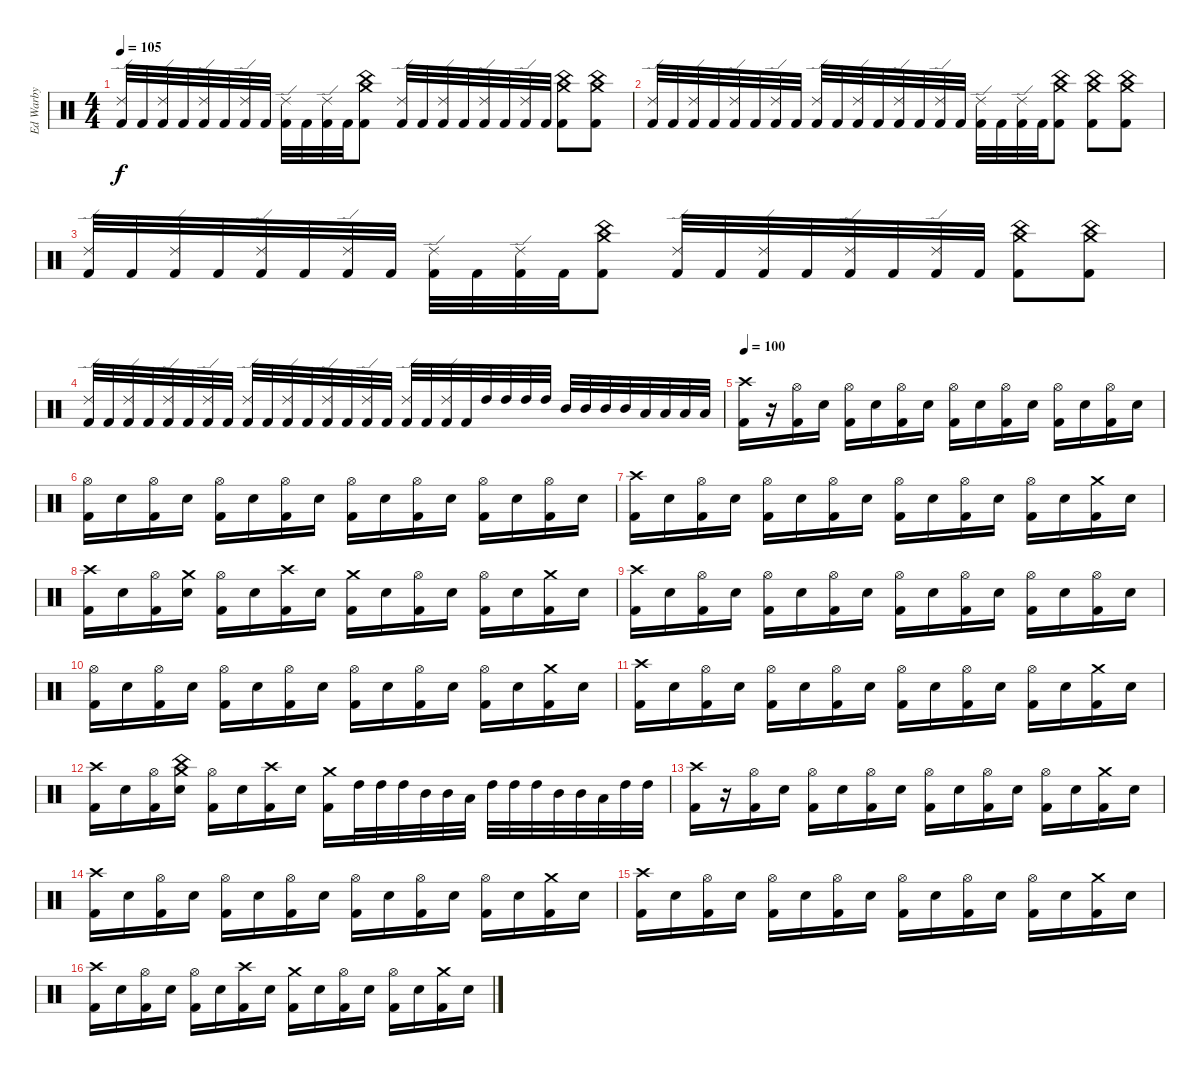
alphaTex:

\track ("Ed Warby" "Ed Warby") {instrument percussion}
\staff {score}
\articulation defaults
\ts (4 4)
\tempo 105
\clef neutral
\ks c
("Ride (edge) 2" "Kick (hit) 2").32{dy f} "Kick (hit) 2".32 ("Ride (edge) 2" "Kick (hit) 2").32 "Kick (hit) 2".32 ("Ride (edge) 2" "Kick (hit) 2").32 "Kick (hit) 2".32 ("Ride (edge) 2" "Kick (hit) 2").32 "Kick (hit) 2".32 ("Ride (edge) 2" "Kick (hit) 2").32 "Kick (hit) 2".32 ("Ride (edge) 2" "Kick (hit) 2").32 "Kick (hit) 2".32 ("China (hit)" "Crash medium (hit)" "Kick (hit) 2").8 ("Ride (edge) 2" "Kick (hit) 2").32 "Kick (hit) 2".32 ("Ride (edge) 2" "Kick (hit) 2").32 "Kick (hit) 2".32 ("Ride (edge) 2" "Kick (hit) 2").32 "Kick (hit) 2".32 ("Ride (edge) 2" "Kick (hit) 2").32 "Kick (hit) 2".32 ("China (hit)" "Crash medium (hit)" "Kick (hit) 2").8 ("China (hit)" "Crash medium (hit)" "Kick (hit) 2").8 |
("Ride (edge) 2" "Kick (hit) 2").32 "Kick (hit) 2".32 ("Ride (edge) 2" "Kick (hit) 2").32 "Kick (hit) 2".32 ("Ride (edge) 2" "Kick (hit) 2").32 "Kick (hit) 2".32 ("Ride (edge) 2" "Kick (hit) 2").32 "Kick (hit) 2".32 ("Ride (edge) 2" "Kick (hit) 2").32 "Kick (hit) 2".32 ("Ride (edge) 2" "Kick (hit) 2").32 "Kick (hit) 2".32 ("Ride (edge) 2" "Kick (hit) 2").32 "Kick (hit) 2".32 ("Ride (edge) 2" "Kick (hit) 2").32 "Kick (hit) 2".32 ("Ride (edge) 2" "Kick (hit) 2").32 "Kick (hit) 2".32 ("Ride (edge) 2" "Kick (hit) 2").32 "Kick (hit) 2".32 ("China (hit)" "Crash medium (hit)" "Kick (hit) 2").8 ("China (hit)" "Crash medium (hit)" "Kick (hit) 2").8 ("China (hit)" "Crash medium (hit)" "Kick (hit) 2").8 |
("Ride (edge) 2" "Kick (hit) 2").32 "Kick (hit) 2".32 ("Ride (edge) 2" "Kick (hit) 2").32 "Kick (hit) 2".32 ("Ride (edge) 2" "Kick (hit) 2").32 "Kick (hit) 2".32 ("Ride (edge) 2" "Kick (hit) 2").32 "Kick (hit) 2".32 ("Ride (edge) 2" "Kick (hit) 2").32 "Kick (hit) 2".32 ("Ride (edge) 2" "Kick (hit) 2").32 "Kick (hit) 2".32 ("China (hit)" "Crash medium (hit)" "Kick (hit) 2").8 ("Ride (edge) 2" "Kick (hit) 2").32 "Kick (hit) 2".32 ("Ride (edge) 2" "Kick (hit) 2").32 "Kick (hit) 2".32 ("Ride (edge) 2" "Kick (hit) 2").32 "Kick (hit) 2".32 ("Ride (edge) 2" "Kick (hit) 2").32 "Kick (hit) 2".32 ("China (hit)" "Crash medium (hit)" "Kick (hit) 2").8 ("China (hit)" "Crash medium (hit)" "Kick (hit) 2").8 |
("Ride (edge) 2" "Kick (hit) 2").32 "Kick (hit) 2".32 ("Ride (edge) 2" "Kick (hit) 2").32 "Kick (hit) 2".32 ("Ride (edge) 2" "Kick (hit) 2").32 "Kick (hit) 2".32 ("Ride (edge) 2" "Kick (hit) 2").32 "Kick (hit) 2".32 ("Ride (edge) 2" "Kick (hit) 2").32 "Kick (hit) 2".32 ("Ride (edge) 2" "Kick (hit) 2").32 "Kick (hit) 2".32 ("Ride (edge) 2" "Kick (hit) 2").32 "Kick (hit) 2".32 ("Ride (edge) 2" "Kick (hit) 2").32 "Kick (hit) 2".32 ("Ride (edge) 2" "Kick (hit) 2").32 "Kick (hit) 2".32 ("Ride (edge) 2" "Kick (hit) 2").32 "Kick (hit) 2".32 "High Tom (hit)".32 "High Tom (hit)".32 "High Tom (hit)".32 "High Tom (hit)".32 "Mid Tom (hit)".32 "Mid Tom (hit)".32 "Mid Tom (hit)".32 "Mid Tom (hit)".32 "Low Tom (hit)".32 "Low Tom (hit)".32 "Low Tom (hit)".32 "Low Tom (hit)".32 |
\tempo 100
("Crash high (hit)" "Kick (hit) 2").16 r.16 ("Hi-Hat (open)" "Kick (hit) 2").16 "Snare (hit) 2".16 ("Hi-Hat (open)" "Kick (hit) 2").16 "Snare (hit) 2".16 ("Hi-Hat (open)" "Kick (hit) 2").16 "Snare (hit) 2".16 ("Hi-Hat (open)" "Kick (hit) 2").16 "Snare (hit) 2".16 ("Hi-Hat (open)" "Kick (hit) 2").16 "Snare (hit) 2".16 ("Hi-Hat (open)" "Kick (hit) 2").16 "Snare (hit) 2".16 ("Hi-Hat (open)" "Kick (hit) 2").16 "Snare (hit) 2".16 |
("Hi-Hat (open)" "Kick (hit) 2").16 "Snare (hit) 2".16 ("Hi-Hat (open)" "Kick (hit) 2").16 "Snare (hit) 2".16 ("Hi-Hat (open)" "Kick (hit) 2").16 "Snare (hit) 2".16 ("Hi-Hat (open)" "Kick (hit) 2").16 "Snare (hit) 2".16 ("Hi-Hat (open)" "Kick (hit) 2").16 "Snare (hit) 2".16 ("Hi-Hat (open)" "Kick (hit) 2").16 "Snare (hit) 2".16 ("Hi-Hat (open)" "Kick (hit) 2").16 "Snare (hit) 2".16 ("Hi-Hat (open)" "Kick (hit) 2").16 "Snare (hit) 2".16 |
("Crash high (hit)" "Kick (hit) 2").16 "Snare (hit) 2".16 ("Hi-Hat (open)" "Kick (hit) 2").16 "Snare (hit) 2".16 ("Hi-Hat (open)" "Kick (hit) 2").16 "Snare (hit) 2".16 ("Hi-Hat (open)" "Kick (hit) 2").16 "Snare (hit) 2".16 ("Hi-Hat (open)" "Kick (hit) 2").16 "Snare (hit) 2".16 ("Hi-Hat (open)" "Kick (hit) 2").16 "Snare (hit) 2".16 ("Hi-Hat (open)" "Kick (hit) 2").16 "Snare (hit) 2".16 ("Crash medium (hit)" "Kick (hit) 2").16 "Snare (hit) 2".16 |
("Crash high (hit)" "Kick (hit) 2").16 "Snare (hit) 2".16 ("Hi-Hat (open)" "Kick (hit) 2").16 ("Crash medium (hit)" "Snare (hit) 2").16 ("Hi-Hat (open)" "Kick (hit) 2").16 "Snare (hit) 2".16 ("Crash high (hit)" "Kick (hit) 2").16 "Snare (hit) 2".16 ("Crash medium (hit)" "Kick (hit) 2").16 "Snare (hit) 2".16 ("Hi-Hat (open)" "Kick (hit) 2").16 "Snare (hit) 2".16 ("Hi-Hat (open)" "Kick (hit) 2").16 "Snare (hit) 2".16 ("Crash medium (hit)" "Kick (hit) 2").16 "Snare (hit) 2".16 |
("Crash high (hit)" "Kick (hit) 2").16 "Snare (hit) 2".16 ("Hi-Hat (open)" "Kick (hit) 2").16 "Snare (hit) 2".16 ("Hi-Hat (open)" "Kick (hit) 2").16 "Snare (hit) 2".16 ("Hi-Hat (open)" "Kick (hit) 2").16 "Snare (hit) 2".16 ("Hi-Hat (open)" "Kick (hit) 2").16 "Snare (hit) 2".16 ("Hi-Hat (open)" "Kick (hit) 2").16 "Snare (hit) 2".16 ("Hi-Hat (open)" "Kick (hit) 2").16 "Snare (hit) 2".16 ("Hi-Hat (open)" "Kick (hit) 2").16 "Snare (hit) 2".16 |
("Hi-Hat (open)" "Kick (hit) 2").16 "Snare (hit) 2".16 ("Hi-Hat (open)" "Kick (hit) 2").16 "Snare (hit) 2".16 ("Hi-Hat (open)" "Kick (hit) 2").16 "Snare (hit) 2".16 ("Hi-Hat (open)" "Kick (hit) 2").16 "Snare (hit) 2".16 ("Hi-Hat (open)" "Kick (hit) 2").16 "Snare (hit) 2".16 ("Hi-Hat (open)" "Kick (hit) 2").16 "Snare (hit) 2".16 ("Hi-Hat (open)" "Kick (hit) 2").16 "Snare (hit) 2".16 ("Crash medium (hit)" "Kick (hit) 2").16 "Snare (hit) 2".16 |
("Crash high (hit)" "Kick (hit) 2").16 "Snare (hit) 2".16 ("Hi-Hat (open)" "Kick (hit) 2").16 "Snare (hit) 2".16 ("Hi-Hat (open)" "Kick (hit) 2").16 "Snare (hit) 2".16 ("Hi-Hat (open)" "Kick (hit) 2").16 "Snare (hit) 2".16 ("Hi-Hat (open)" "Kick (hit) 2").16 "Snare (hit) 2".16 ("Hi-Hat (open)" "Kick (hit) 2").16 "Snare (hit) 2".16 ("Hi-Hat (open)" "Kick (hit) 2").16 "Snare (hit) 2".16 ("Crash medium (hit)" "Kick (hit) 2").16 "Snare (hit) 2".16 |
("Crash high (hit)" "Kick (hit) 2").16 "Snare (hit) 2".16 ("Hi-Hat (open)" "Kick (hit) 2").16 ("China (hit)" "Crash medium (hit)" "Snare (hit) 2").16 ("Hi-Hat (open)" "Kick (hit) 2").16 "Snare (hit) 2".16 ("Crash high (hit)" "Kick (hit) 2").16 "Snare (hit) 2".16 ("Crash medium (hit)" "Kick (hit) 2").16 "High Tom (hit)".32 "High Tom (hit)".32 "High Tom (hit)".32 "Mid Tom (hit)".32 "Mid Tom (hit)".32 "Low Tom (hit)".32 "High Tom (hit)".32 "High Tom (hit)".32 "High Tom (hit)".32 "Mid Tom (hit)".32 "Mid Tom (hit)".32 "Low Tom (hit)".32 "High Tom (hit)".32 "High Tom (hit)".32 |
("Crash high (hit)" "Kick (hit) 2").16 r.16 ("Hi-Hat (open)" "Kick (hit) 2").16 "Snare (hit) 2".16 ("Hi-Hat (open)" "Kick (hit) 2").16 "Snare (hit) 2".16 ("Hi-Hat (open)" "Kick (hit) 2").16 "Snare (hit) 2".16 ("Hi-Hat (open)" "Kick (hit) 2").16 "Snare (hit) 2".16 ("Hi-Hat (open)" "Kick (hit) 2").16 "Snare (hit) 2".16 ("Hi-Hat (open)" "Kick (hit) 2").16 "Snare (hit) 2".16 ("Crash medium (hit)" "Kick (hit) 2").16 "Snare (hit) 2".16 |
("Crash high (hit)" "Kick (hit) 2").16 "Snare (hit) 2".16 ("Hi-Hat (open)" "Kick (hit) 2").16 "Snare (hit) 2".16 ("Hi-Hat (open)" "Kick (hit) 2").16 "Snare (hit) 2".16 ("Hi-Hat (open)" "Kick (hit) 2").16 "Snare (hit) 2".16 ("Hi-Hat (open)" "Kick (hit) 2").16 "Snare (hit) 2".16 ("Hi-Hat (open)" "Kick (hit) 2").16 "Snare (hit) 2".16 ("Hi-Hat (open)" "Kick (hit) 2").16 "Snare (hit) 2".16 ("Crash medium (hit)" "Kick (hit) 2").16 "Snare (hit) 2".16 |
("Crash high (hit)" "Kick (hit) 2").16 "Snare (hit) 2".16 ("Hi-Hat (open)" "Kick (hit) 2").16 "Snare (hit) 2".16 ("Hi-Hat (open)" "Kick (hit) 2").16 "Snare (hit) 2".16 ("Hi-Hat (open)" "Kick (hit) 2").16 "Snare (hit) 2".16 ("Hi-Hat (open)" "Kick (hit) 2").16 "Snare (hit) 2".16 ("Hi-Hat (open)" "Kick (hit) 2").16 "Snare (hit) 2".16 ("Hi-Hat (open)" "Kick (hit) 2").16 "Snare (hit) 2".16 ("Crash medium (hit)" "Kick (hit) 2").16 "Snare (hit) 2".16 |
("Crash high (hit)" "Kick (hit) 2").16 "Snare (hit) 2".16 ("Hi-Hat (open)" "Kick (hit) 2").16 "Snare (hit) 2".16 ("Hi-Hat (open)" "Kick (hit) 2").16 "Snare (hit) 2".16 ("Crash high (hit)" "Kick (hit) 2").16 "Snare (hit) 2".16 ("Crash medium (hit)" "Kick (hit) 2").16 "Snare (hit) 2".16 ("Hi-Hat (open)" "Kick (hit) 2").16 "Snare (hit) 2".16 ("Hi-Hat (open)" "Kick (hit) 2").16 "Snare (hit) 2".16 ("Crash medium (hit)" "Kick (hit) 2").16 "Snare (hit) 2".16
